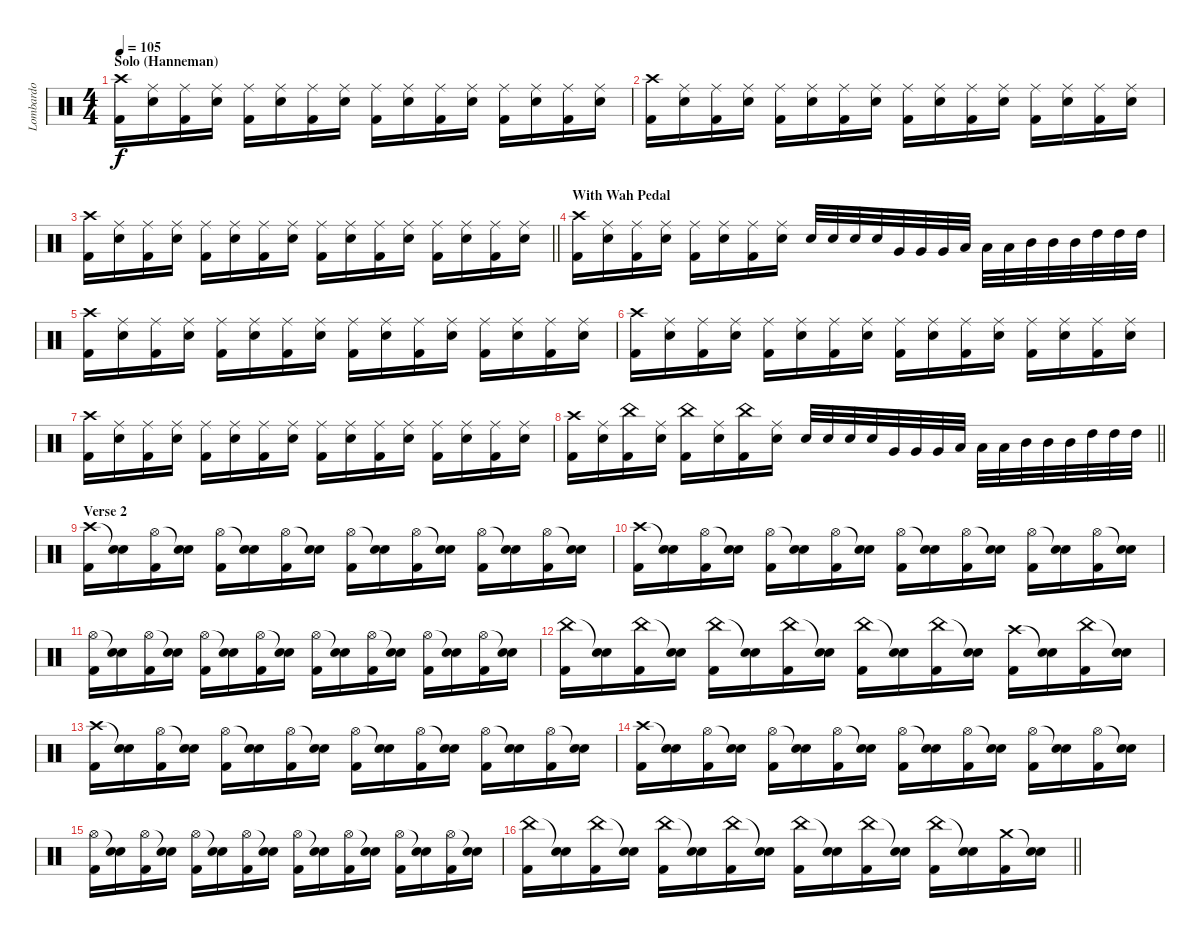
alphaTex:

\track ("Lombardo" "Lombardo") {instrument percussion}
\staff {score}
\articulation defaults
\ts (4 4)
\section ("" "Solo (Hanneman)")
\tempo 105
\clef neutral
\ks c
("Crash high (hit)" "Kick (hit) 2").16{dy f} ("Ride (middle)" "Snare (hit) 2").16 ("Ride (middle)" "Kick (hit) 2").16 ("Ride (middle)" "Snare (hit) 2").16 ("Ride (middle)" "Kick (hit) 2").16 ("Ride (middle)" "Snare (hit) 2").16 ("Ride (middle)" "Kick (hit) 2").16 ("Ride (middle)" "Snare (hit) 2").16 ("Ride (middle)" "Kick (hit) 2").16 ("Ride (middle)" "Snare (hit) 2").16 ("Ride (middle)" "Kick (hit) 2").16 ("Ride (middle)" "Snare (hit) 2").16 ("Ride (middle)" "Kick (hit) 2").16 ("Ride (middle)" "Snare (hit) 2").16 ("Ride (middle)" "Kick (hit) 2").16 ("Ride (middle)" "Snare (hit) 2").16 |
("Crash high (hit)" "Kick (hit) 2").16 ("Ride (middle)" "Snare (hit) 2").16 ("Ride (middle)" "Kick (hit) 2").16 ("Ride (middle)" "Snare (hit) 2").16 ("Ride (middle)" "Kick (hit) 2").16 ("Ride (middle)" "Snare (hit) 2").16 ("Ride (middle)" "Kick (hit) 2").16 ("Ride (middle)" "Snare (hit) 2").16 ("Ride (middle)" "Kick (hit) 2").16 ("Ride (middle)" "Snare (hit) 2").16 ("Ride (middle)" "Kick (hit) 2").16 ("Ride (middle)" "Snare (hit) 2").16 ("Ride (middle)" "Kick (hit) 2").16 ("Ride (middle)" "Snare (hit) 2").16 ("Ride (middle)" "Kick (hit) 2").16 ("Ride (middle)" "Snare (hit) 2").16 |
\barLineRight lightlight
("Crash high (hit)" "Kick (hit) 2").16 ("Ride (middle)" "Snare (hit) 2").16 ("Ride (middle)" "Kick (hit) 2").16 ("Ride (middle)" "Snare (hit) 2").16 ("Ride (middle)" "Kick (hit) 2").16 ("Ride (middle)" "Snare (hit) 2").16 ("Ride (middle)" "Kick (hit) 2").16 ("Ride (middle)" "Snare (hit) 2").16 ("Ride (middle)" "Kick (hit) 2").16 ("Ride (middle)" "Snare (hit) 2").16 ("Ride (middle)" "Kick (hit) 2").16 ("Ride (middle)" "Snare (hit) 2").16 ("Ride (middle)" "Kick (hit) 2").16 ("Ride (middle)" "Snare (hit) 2").16 ("Ride (middle)" "Kick (hit) 2").16 ("Ride (middle)" "Snare (hit) 2").16 |
\section ("" "With Wah Pedal")
("Crash high (hit)" "Kick (hit) 2").16 ("Ride (middle)" "Snare (hit) 2").16 ("Ride (middle)" "Kick (hit) 2").16 ("Ride (middle)" "Snare (hit) 2").16 ("Ride (middle)" "Kick (hit) 2").16 ("Ride (middle)" "Snare (hit) 2").16 ("Ride (middle)" "Kick (hit) 2").16 ("Ride (middle)" "Snare (hit) 2").16 "Snare (hit) 2".32 "Snare (hit) 2".32 "Snare (hit) 2".32 "Snare (hit) 2".32 "Very Low Tom (hit)".32 "Very Low Tom (hit)".32 "Very Low Tom (hit)".32 "Low Tom (hit)".32 "Low Tom (hit)".32 "Low Tom (hit)".32 "Mid Tom (hit)".32 "Mid Tom (hit)".32 "Mid Tom (hit)".32 "High Tom (hit)".32 "High Tom (hit)".32 "High Tom (hit)".32 |
("Crash high (hit)" "Kick (hit) 2").16 ("Ride (middle)" "Snare (hit) 2").16 ("Ride (middle)" "Kick (hit) 2").16 ("Ride (middle)" "Snare (hit) 2").16 ("Ride (middle)" "Kick (hit) 2").16 ("Ride (middle)" "Snare (hit) 2").16 ("Ride (middle)" "Kick (hit) 2").16 ("Ride (middle)" "Snare (hit) 2").16 ("Ride (middle)" "Kick (hit) 2").16 ("Ride (middle)" "Snare (hit) 2").16 ("Ride (middle)" "Kick (hit) 2").16 ("Ride (middle)" "Snare (hit) 2").16 ("Ride (middle)" "Kick (hit) 2").16 ("Ride (middle)" "Snare (hit) 2").16 ("Ride (middle)" "Kick (hit) 2").16 ("Ride (middle)" "Snare (hit) 2").16 |
("Crash high (hit)" "Kick (hit) 2").16 ("Ride (middle)" "Snare (hit) 2").16 ("Ride (middle)" "Kick (hit) 2").16 ("Ride (middle)" "Snare (hit) 2").16 ("Ride (middle)" "Kick (hit) 2").16 ("Ride (middle)" "Snare (hit) 2").16 ("Ride (middle)" "Kick (hit) 2").16 ("Ride (middle)" "Snare (hit) 2").16 ("Ride (middle)" "Kick (hit) 2").16 ("Ride (middle)" "Snare (hit) 2").16 ("Ride (middle)" "Kick (hit) 2").16 ("Ride (middle)" "Snare (hit) 2").16 ("Ride (middle)" "Kick (hit) 2").16 ("Ride (middle)" "Snare (hit) 2").16 ("Ride (middle)" "Kick (hit) 2").16 ("Ride (middle)" "Snare (hit) 2").16 |
("Crash high (hit)" "Kick (hit) 2").16 ("Ride (middle)" "Snare (hit) 2").16 ("Ride (middle)" "Kick (hit) 2").16 ("Ride (middle)" "Snare (hit) 2").16 ("Ride (middle)" "Kick (hit) 2").16 ("Ride (middle)" "Snare (hit) 2").16 ("Ride (middle)" "Kick (hit) 2").16 ("Ride (middle)" "Snare (hit) 2").16 ("Ride (middle)" "Kick (hit) 2").16 ("Ride (middle)" "Snare (hit) 2").16 ("Ride (middle)" "Kick (hit) 2").16 ("Ride (middle)" "Snare (hit) 2").16 ("Ride (middle)" "Kick (hit) 2").16 ("Ride (middle)" "Snare (hit) 2").16 ("Ride (middle)" "Kick (hit) 2").16 ("Ride (middle)" "Snare (hit) 2").16 |
\barLineRight lightlight
("Crash high (hit)" "Kick (hit) 2").16 ("Ride (middle)" "Snare (hit) 2").16 ("China (hit)" "Kick (hit) 2").16 ("Ride (middle)" "Snare (hit) 2").16 ("China (hit)" "Kick (hit) 2").16 ("Ride (middle)" "Snare (hit) 2").16 ("China (hit)" "Kick (hit) 2").16 ("Ride (middle)" "Snare (hit) 2").16 "Snare (hit) 2".32 "Snare (hit) 2".32 "Snare (hit) 2".32 "Snare (hit) 2".32 "Very Low Tom (hit)".32 "Very Low Tom (hit)".32 "Very Low Tom (hit)".32 "Low Tom (hit)".32 "Low Tom (hit)".32 "Low Tom (hit)".32 "Mid Tom (hit)".32 "Mid Tom (hit)".32 "Mid Tom (hit)".32 "High Tom (hit)".32 "High Tom (hit)".32 "High Tom (hit)".32 |
\section ("" "Verse 2")
("Crash high (hit)" "Kick (hit) 2").16 ("Snare (hit)"{t} "Snare (hit) 2").16 ("Hi-Hat (open)" "Kick (hit) 2").16 ("Snare (hit)"{t} "Snare (hit) 2").16 ("Hi-Hat (open)" "Kick (hit) 2").16 ("Snare (hit)"{t} "Snare (hit) 2").16 ("Hi-Hat (open)" "Kick (hit) 2").16 ("Snare (hit)"{t} "Snare (hit) 2").16 ("Hi-Hat (open)" "Kick (hit) 2").16 ("Snare (hit)"{t} "Snare (hit) 2").16 ("Hi-Hat (open)" "Kick (hit) 2").16 ("Snare (hit)"{t} "Snare (hit) 2").16 ("Hi-Hat (open)" "Kick (hit) 2").16 ("Snare (hit)"{t} "Snare (hit) 2").16 ("Hi-Hat (open)" "Kick (hit) 2").16 ("Snare (hit)"{t} "Snare (hit) 2").16 |
("Crash high (hit)" "Kick (hit) 2").16 ("Snare (hit)"{t} "Snare (hit) 2").16 ("Hi-Hat (open)" "Kick (hit) 2").16 ("Snare (hit)"{t} "Snare (hit) 2").16 ("Hi-Hat (open)" "Kick (hit) 2").16 ("Snare (hit)"{t} "Snare (hit) 2").16 ("Hi-Hat (open)" "Kick (hit) 2").16 ("Snare (hit)"{t} "Snare (hit) 2").16 ("Hi-Hat (open)" "Kick (hit) 2").16 ("Snare (hit)"{t} "Snare (hit) 2").16 ("Hi-Hat (open)" "Kick (hit) 2").16 ("Snare (hit)"{t} "Snare (hit) 2").16 ("Hi-Hat (open)" "Kick (hit) 2").16 ("Snare (hit)"{t} "Snare (hit) 2").16 ("Hi-Hat (open)" "Kick (hit) 2").16 ("Snare (hit)"{t} "Snare (hit) 2").16 |
("Hi-Hat (open)" "Kick (hit) 2").16 ("Snare (hit)"{t} "Snare (hit) 2").16 ("Hi-Hat (open)" "Kick (hit) 2").16 ("Snare (hit)"{t} "Snare (hit) 2").16 ("Hi-Hat (open)" "Kick (hit) 2").16 ("Snare (hit)"{t} "Snare (hit) 2").16 ("Hi-Hat (open)" "Kick (hit) 2").16 ("Snare (hit)"{t} "Snare (hit) 2").16 ("Hi-Hat (open)" "Kick (hit) 2").16 ("Snare (hit)"{t} "Snare (hit) 2").16 ("Hi-Hat (open)" "Kick (hit) 2").16 ("Snare (hit)"{t} "Snare (hit) 2").16 ("Hi-Hat (open)" "Kick (hit) 2").16 ("Snare (hit)"{t} "Snare (hit) 2").16 ("Hi-Hat (open)" "Kick (hit) 2").16 ("Snare (hit)"{t} "Snare (hit) 2").16 |
("China (hit)" "Kick (hit) 2").16 ("Snare (hit)"{t} "Snare (hit) 2").16 ("China (hit)" "Kick (hit) 2").16 ("Snare (hit)"{t} "Snare (hit) 2").16 ("China (hit)" "Kick (hit) 2").16 ("Snare (hit)"{t} "Snare (hit) 2").16 ("China (hit)" "Kick (hit) 2").16 ("Snare (hit)"{t} "Snare (hit) 2").16 ("China (hit)" "Kick (hit) 2").16 ("Snare (hit)"{t} "Snare (hit) 2").16 ("China (hit)" "Kick (hit) 2").16 ("Snare (hit)"{t} "Snare (hit) 2").16 ("Crash high (hit)" "Kick (hit) 2").16 ("Snare (hit)"{t} "Snare (hit) 2").16 ("China (hit)" "Kick (hit) 2").16 ("Snare (hit)"{t} "Snare (hit) 2").16 |
("Crash high (hit)" "Kick (hit) 2").16 ("Snare (hit)"{t} "Snare (hit) 2").16 ("Hi-Hat (open)" "Kick (hit) 2").16 ("Snare (hit)"{t} "Snare (hit) 2").16 ("Hi-Hat (open)" "Kick (hit) 2").16 ("Snare (hit)"{t} "Snare (hit) 2").16 ("Hi-Hat (open)" "Kick (hit) 2").16 ("Snare (hit)"{t} "Snare (hit) 2").16 ("Hi-Hat (open)" "Kick (hit) 2").16 ("Snare (hit)"{t} "Snare (hit) 2").16 ("Hi-Hat (open)" "Kick (hit) 2").16 ("Snare (hit)"{t} "Snare (hit) 2").16 ("Hi-Hat (open)" "Kick (hit) 2").16 ("Snare (hit)"{t} "Snare (hit) 2").16 ("Hi-Hat (open)" "Kick (hit) 2").16 ("Snare (hit)"{t} "Snare (hit) 2").16 |
("Crash high (hit)" "Kick (hit) 2").16 ("Snare (hit)"{t} "Snare (hit) 2").16 ("Hi-Hat (open)" "Kick (hit) 2").16 ("Snare (hit)"{t} "Snare (hit) 2").16 ("Hi-Hat (open)" "Kick (hit) 2").16 ("Snare (hit)"{t} "Snare (hit) 2").16 ("Hi-Hat (open)" "Kick (hit) 2").16 ("Snare (hit)"{t} "Snare (hit) 2").16 ("Hi-Hat (open)" "Kick (hit) 2").16 ("Snare (hit)"{t} "Snare (hit) 2").16 ("Hi-Hat (open)" "Kick (hit) 2").16 ("Snare (hit)"{t} "Snare (hit) 2").16 ("Hi-Hat (open)" "Kick (hit) 2").16 ("Snare (hit)"{t} "Snare (hit) 2").16 ("Hi-Hat (open)" "Kick (hit) 2").16 ("Snare (hit)"{t} "Snare (hit) 2").16 |
("Hi-Hat (open)" "Kick (hit) 2").16 ("Snare (hit)"{t} "Snare (hit) 2").16 ("Hi-Hat (open)" "Kick (hit) 2").16 ("Snare (hit)"{t} "Snare (hit) 2").16 ("Hi-Hat (open)" "Kick (hit) 2").16 ("Snare (hit)"{t} "Snare (hit) 2").16 ("Hi-Hat (open)" "Kick (hit) 2").16 ("Snare (hit)"{t} "Snare (hit) 2").16 ("Hi-Hat (open)" "Kick (hit) 2").16 ("Snare (hit)"{t} "Snare (hit) 2").16 ("Hi-Hat (open)" "Kick (hit) 2").16 ("Snare (hit)"{t} "Snare (hit) 2").16 ("Hi-Hat (open)" "Kick (hit) 2").16 ("Snare (hit)"{t} "Snare (hit) 2").16 ("Hi-Hat (open)" "Kick (hit) 2").16 ("Snare (hit)"{t} "Snare (hit) 2").16 |
\barLineRight lightlight
("China (hit)" "Kick (hit) 2").16 ("Snare (hit)"{t} "Snare (hit) 2").16 ("China (hit)" "Kick (hit) 2").16 ("Snare (hit)"{t} "Snare (hit) 2").16 ("China (hit)" "Kick (hit) 2").16 ("Snare (hit)"{t} "Snare (hit) 2").16 ("China (hit)" "Kick (hit) 2").16 ("Snare (hit)"{t} "Snare (hit) 2").16 ("China (hit)" "Kick (hit) 2").16 ("Snare (hit)"{t} "Snare (hit) 2").16 ("China (hit)" "Kick (hit) 2").16 ("Snare (hit)"{t} "Snare (hit) 2").16 ("China (hit)" "Kick (hit) 2").16 ("Snare (hit)"{t} "Snare (hit) 2").16 ("Crash medium (hit)" "Kick (hit) 2").16 ("Snare (hit)"{t} "Snare (hit) 2").16
